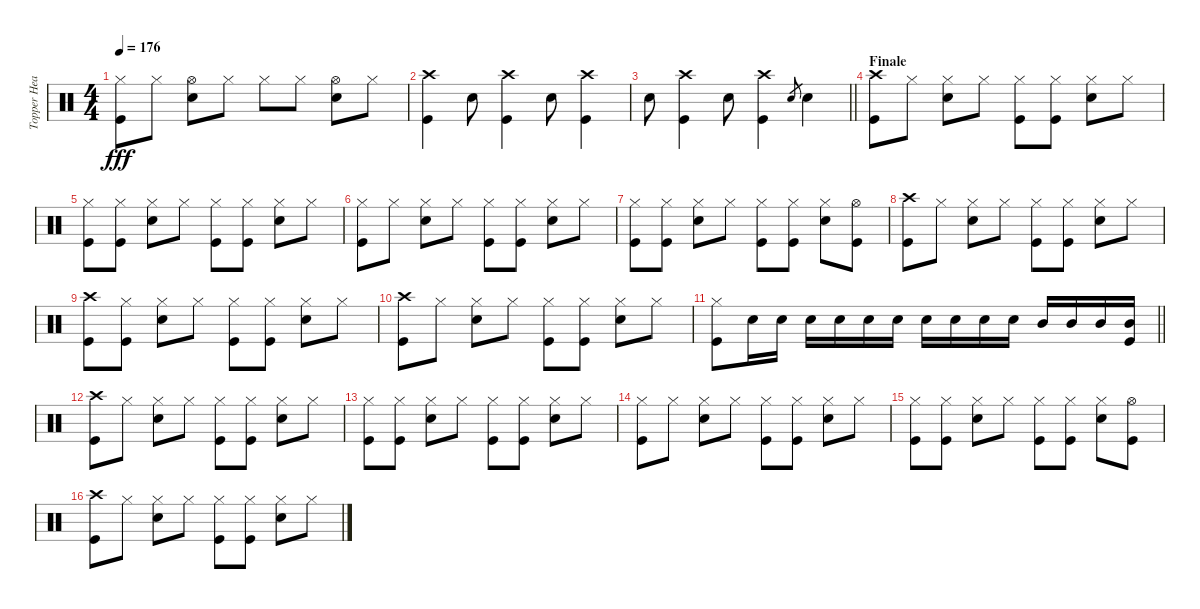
\track ("Topper Headon - Drums" "Topper Hea") {instrument percussion}
\staff {score}
\articulation defaults
\ts (4 4)
\tempo 176
\clef neutral
\ks c
("Hi-Hat (closed)" "Kick (hit)").8{dy fff} "Hi-Hat (closed)".8 ("Hi-Hat (open)" "Snare (hit) 2").8 "Hi-Hat (closed)".8 "Hi-Hat (closed)".8 "Hi-Hat (closed)".8 ("Hi-Hat (open)" "Snare (hit) 2").8 "Hi-Hat (closed)".8 |
("Kick (hit)" "Crash high (hit)").4 "Snare (hit) 2".8 ("Kick (hit)" "Crash high (hit)").4 "Snare (hit) 2".8 ("Kick (hit)" "Crash high (hit)").4 |
\barLineRight lightlight "Snare (hit) 2".8
("Kick (hit)" "Crash high (hit)").4 "Snare (hit) 2".8 ("Kick (hit)" "Crash high (hit)").4 "Snare (hit) 2".8{gr} "Snare (hit) 2".4 |
\section ("" "Finale")
("Crash high (hit)" "Kick (hit)").8 "Hi-Hat (closed)".8 ("Hi-Hat (closed)" "Snare (hit) 2").8 "Hi-Hat (closed)".8 ("Hi-Hat (closed)" "Kick (hit)").8 ("Hi-Hat (closed)" "Kick (hit)").8 ("Hi-Hat (closed)" "Snare (hit) 2").8 "Hi-Hat (closed)".8 |
("Kick (hit)" "Hi-Hat (closed)").8 ("Kick (hit)" "Hi-Hat (closed)").8 ("Hi-Hat (closed)" "Snare (hit) 2").8 "Hi-Hat (closed)".8 ("Kick (hit)" "Hi-Hat (closed)").8 ("Kick (hit)" "Hi-Hat (closed)").8 ("Hi-Hat (closed)" "Snare (hit) 2").8 "Hi-Hat (closed)".8 |
("Hi-Hat (closed)" "Kick (hit)").8 "Hi-Hat (closed)".8 ("Hi-Hat (closed)" "Snare (hit) 2").8 "Hi-Hat (closed)".8 ("Hi-Hat (closed)" "Kick (hit)").8 ("Hi-Hat (closed)" "Kick (hit)").8 ("Hi-Hat (closed)" "Snare (hit) 2").8 "Hi-Hat (closed)".8 |
("Kick (hit)" "Hi-Hat (closed)").8 ("Kick (hit)" "Hi-Hat (closed)").8 ("Hi-Hat (closed)" "Snare (hit) 2").8 "Hi-Hat (closed)".8 ("Kick (hit)" "Hi-Hat (closed)").8 ("Kick (hit)" "Hi-Hat (closed)").8 ("Hi-Hat (closed)" "Snare (hit) 2").8 ("Kick (hit)" "Hi-Hat (open)").8 |
("Crash high (hit)" "Kick (hit)").8 "Hi-Hat (closed)".8 ("Hi-Hat (closed)" "Snare (hit) 2").8 "Hi-Hat (closed)".8 ("Hi-Hat (closed)" "Kick (hit)").8 ("Hi-Hat (closed)" "Kick (hit)").8 ("Hi-Hat (closed)" "Snare (hit) 2").8 "Hi-Hat (closed)".8 |
("Kick (hit)" "Crash high (hit)").8 ("Kick (hit)" "Hi-Hat (closed)").8 ("Hi-Hat (closed)" "Snare (hit) 2").8 "Hi-Hat (closed)".8 ("Kick (hit)" "Hi-Hat (closed)").8 ("Kick (hit)" "Hi-Hat (closed)").8 ("Hi-Hat (closed)" "Snare (hit) 2").8 "Hi-Hat (closed)".8 |
("Crash high (hit)" "Kick (hit)").8 "Hi-Hat (closed)".8 ("Hi-Hat (closed)" "Snare (hit) 2").8 "Hi-Hat (closed)".8 ("Hi-Hat (closed)" "Kick (hit)").8 ("Hi-Hat (closed)" "Kick (hit)").8 ("Hi-Hat (closed)" "Snare (hit) 2").8 "Hi-Hat (closed)".8 |
\barLineRight lightlight
("Kick (hit)" "Hi-Hat (closed)").8 "Snare (hit) 2".16 "Snare (hit) 2".16 "Snare (hit) 2".16 "Snare (hit) 2".16 "Snare (hit) 2".16 "Snare (hit) 2".16 "Snare (hit) 2".16 "Snare (hit) 2".16 "Snare (hit) 2".16 "Snare (hit) 2".16 "Mid Tom (hit)".16 "Mid Tom (hit)".16 "Mid Tom (hit)".16 ("Mid Tom (hit)" "Kick (hit)").16 |
("Crash high (hit)" "Kick (hit)").8 "Hi-Hat (closed)".8 ("Hi-Hat (closed)" "Snare (hit) 2").8 "Hi-Hat (closed)".8 ("Hi-Hat (closed)" "Kick (hit)").8 ("Hi-Hat (closed)" "Kick (hit)").8 ("Hi-Hat (closed)" "Snare (hit) 2").8 "Hi-Hat (closed)".8 |
("Kick (hit)" "Hi-Hat (closed)").8 ("Kick (hit)" "Hi-Hat (closed)").8 ("Hi-Hat (closed)" "Snare (hit) 2").8 "Hi-Hat (closed)".8 ("Kick (hit)" "Hi-Hat (closed)").8 ("Kick (hit)" "Hi-Hat (closed)").8 ("Hi-Hat (closed)" "Snare (hit) 2").8 "Hi-Hat (closed)".8 |
("Hi-Hat (closed)" "Kick (hit)").8 "Hi-Hat (closed)".8 ("Hi-Hat (closed)" "Snare (hit) 2").8 "Hi-Hat (closed)".8 ("Hi-Hat (closed)" "Kick (hit)").8 ("Hi-Hat (closed)" "Kick (hit)").8 ("Hi-Hat (closed)" "Snare (hit) 2").8 "Hi-Hat (closed)".8 |
("Kick (hit)" "Hi-Hat (closed)").8 ("Kick (hit)" "Hi-Hat (closed)").8 ("Hi-Hat (closed)" "Snare (hit) 2").8 "Hi-Hat (closed)".8 ("Kick (hit)" "Hi-Hat (closed)").8 ("Kick (hit)" "Hi-Hat (closed)").8 ("Hi-Hat (closed)" "Snare (hit) 2").8 ("Kick (hit)" "Hi-Hat (open)").8 |
("Crash high (hit)" "Kick (hit)").8 "Hi-Hat (closed)".8 ("Hi-Hat (closed)" "Snare (hit) 2").8 "Hi-Hat (closed)".8 ("Hi-Hat (closed)" "Kick (hit)").8 ("Hi-Hat (closed)" "Kick (hit)").8 ("Hi-Hat (closed)" "Snare (hit) 2").8 "Hi-Hat (closed)".8
